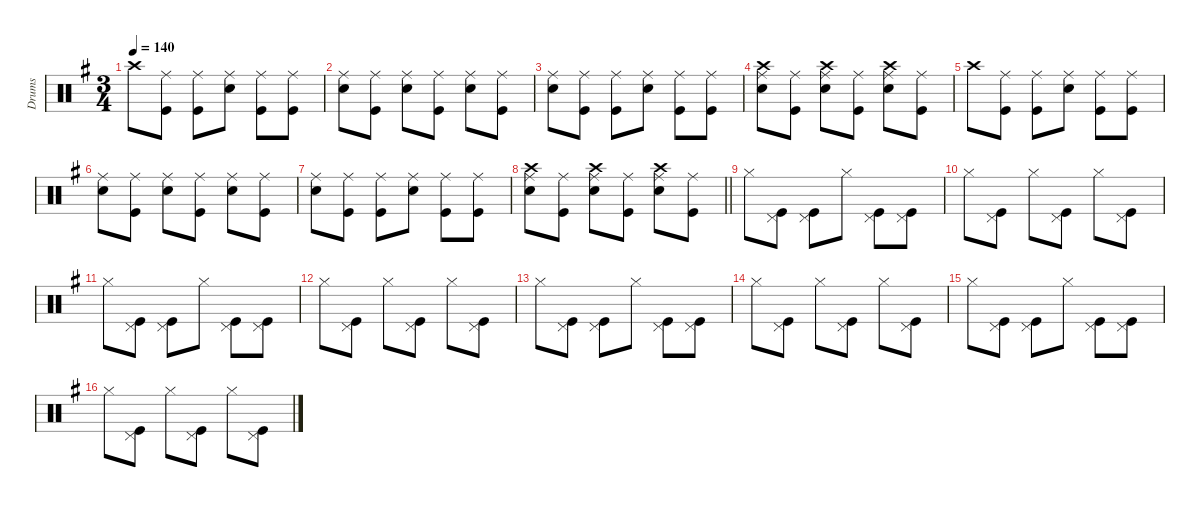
\defaultSystemsLayout 8
\hideDynamics
\bracketExtendMode groupsimilarinstruments
\firstSystemTrackNameMode fullname
\otherSystemsTrackNameOrientation horizontal
\track ("Drums" "drm.") {defaultSystemsLayout 4 instrument percussion}
\staff {score}
\articulation defaults
\ts (3 4)
\tempo 140
\clef neutral
\ks g "Crash high (hit)"{acc forcenatural}.8{dy fff beam Down}
("Ride (middle)"{acc forcenatural} "Kick (hit)"{acc forcenatural}).8{beam Down} ("Ride (middle)"{acc forcenatural} "Kick (hit)"{acc forcenatural}).8{beam Down} ("Ride (middle)"{acc forcenatural} "Snare (hit) 2"{acc forcenatural}).8{beam Down} ("Ride (middle)"{acc forcenatural} "Kick (hit)"{acc forcenatural}).8{beam Down} ("Ride (middle)"{acc forcenatural} "Kick (hit)"{acc forcenatural}).8{beam Down} |
("Ride (middle)"{acc forcenatural} "Snare (hit) 2"{acc forcenatural}).8{beam Down} ("Ride (middle)"{acc forcenatural} "Kick (hit)"{acc forcenatural}).8{beam Down} ("Ride (middle)"{acc forcenatural} "Snare (hit) 2"{acc forcenatural}).8{beam Down} ("Ride (middle)"{acc forcenatural} "Kick (hit)"{acc forcenatural}).8{beam Down} ("Ride (middle)"{acc forcenatural} "Snare (hit) 2"{acc forcenatural}).8{beam Down} ("Ride (middle)"{acc forcenatural} "Kick (hit)"{acc forcenatural}).8{beam Down} |
("Ride (middle)"{acc forcenatural} "Snare (hit) 2"{acc forcenatural}).8{beam Down} ("Ride (middle)"{acc forcenatural} "Kick (hit)"{acc forcenatural}).8{beam Down} ("Ride (middle)"{acc forcenatural} "Kick (hit)"{acc forcenatural}).8{beam Down} ("Ride (middle)"{acc forcenatural} "Snare (hit) 2"{acc forcenatural}).8{beam Down} ("Ride (middle)"{acc forcenatural} "Kick (hit)"{acc forcenatural}).8{beam Down} ("Ride (middle)"{acc forcenatural} "Kick (hit)"{acc forcenatural}).8{beam Down} |
("Crash high (hit)"{acc forcenatural} "Ride (middle)"{acc forcenatural} "Snare (hit) 2"{acc forcenatural}).8{beam Down} ("Ride (middle)"{acc forcenatural} "Kick (hit)"{acc forcenatural}).8{beam Down} ("Crash high (hit)"{acc forcenatural} "Ride (middle)"{acc forcenatural} "Snare (hit) 2"{acc forcenatural}).8{beam Down} ("Ride (middle)"{acc forcenatural} "Kick (hit)"{acc forcenatural}).8{beam Down} ("Crash high (hit)"{acc forcenatural} "Ride (middle)"{acc forcenatural} "Snare (hit) 2"{acc forcenatural}).8{beam Down} ("Ride (middle)"{acc forcenatural} "Kick (hit)"{acc forcenatural}).8{beam Down} |
"Crash high (hit)"{acc forcenatural}.8{beam Down} ("Ride (middle)"{acc forcenatural} "Kick (hit)"{acc forcenatural}).8{beam Down} ("Ride (middle)"{acc forcenatural} "Kick (hit)"{acc forcenatural}).8{beam Down} ("Ride (middle)"{acc forcenatural} "Snare (hit) 2"{acc forcenatural}).8{beam Down} ("Ride (middle)"{acc forcenatural} "Kick (hit)"{acc forcenatural}).8{beam Down} ("Ride (middle)"{acc forcenatural} "Kick (hit)"{acc forcenatural}).8{beam Down} |
("Ride (middle)"{acc forcenatural} "Snare (hit) 2"{acc forcenatural}).8{beam Down} ("Ride (middle)"{acc forcenatural} "Kick (hit)"{acc forcenatural}).8{beam Down} ("Ride (middle)"{acc forcenatural} "Snare (hit) 2"{acc forcenatural}).8{beam Down} ("Ride (middle)"{acc forcenatural} "Kick (hit)"{acc forcenatural}).8{beam Down} ("Ride (middle)"{acc forcenatural} "Snare (hit) 2"{acc forcenatural}).8{beam Down} ("Ride (middle)"{acc forcenatural} "Kick (hit)"{acc forcenatural}).8{beam Down} |
("Ride (middle)"{acc forcenatural} "Snare (hit) 2"{acc forcenatural}).8{beam Down} ("Ride (middle)"{acc forcenatural} "Kick (hit)"{acc forcenatural}).8{beam Down} ("Ride (middle)"{acc forcenatural} "Kick (hit)"{acc forcenatural}).8{beam Down} ("Ride (middle)"{acc forcenatural} "Snare (hit) 2"{acc forcenatural}).8{beam Down} ("Ride (middle)"{acc forcenatural} "Kick (hit)"{acc forcenatural}).8{beam Down} ("Ride (middle)"{acc forcenatural} "Kick (hit)"{acc forcenatural}).8{beam Down} |
\barLineRight lightlight
("Crash high (hit)"{acc forcenatural} "Ride (middle)"{acc forcenatural} "Snare (hit) 2"{acc forcenatural}).8{beam Down} ("Ride (middle)"{acc forcenatural} "Kick (hit)"{acc forcenatural}).8{beam Down} ("Crash high (hit)"{acc forcenatural} "Ride (middle)"{acc forcenatural} "Snare (hit) 2"{acc forcenatural}).8{beam Down} ("Ride (middle)"{acc forcenatural} "Kick (hit)"{acc forcenatural}).8{beam Down} ("Crash high (hit)"{acc forcenatural} "Ride (middle)"{acc forcenatural} "Snare (hit) 2"{acc forcenatural}).8{beam Down} ("Ride (middle)"{acc forcenatural} "Kick (hit)"{acc forcenatural}).8{beam Down} |
"Hi-Hat (closed)"{acc forcenatural}.8{dy f beam Down} ("Pedal Hi-Hat (hit)"{acc forcenatural} "Kick (hit)"{acc forcenatural}).8{beam Down} ("Pedal Hi-Hat (hit)"{acc forcenatural} "Kick (hit)"{acc forcenatural}).8{beam Down} "Hi-Hat (closed)"{acc forcenatural}.8{beam Down} ("Pedal Hi-Hat (hit)"{acc forcenatural} "Kick (hit)"{acc forcenatural}).8{beam Down} ("Pedal Hi-Hat (hit)"{acc forcenatural} "Kick (hit)"{acc forcenatural}).8{beam Down} |
"Hi-Hat (closed)"{acc forcenatural}.8{beam Down} ("Pedal Hi-Hat (hit)"{acc forcenatural} "Kick (hit)"{acc forcenatural}).8{beam Down} "Hi-Hat (closed)"{acc forcenatural}.8{beam Down} ("Pedal Hi-Hat (hit)"{acc forcenatural} "Kick (hit)"{acc forcenatural}).8{beam Down} "Hi-Hat (closed)"{acc forcenatural}.8{beam Down} ("Pedal Hi-Hat (hit)"{acc forcenatural} "Kick (hit)"{acc forcenatural}).8{beam Down} |
"Hi-Hat (closed)"{acc forcenatural}.8{beam Down} ("Pedal Hi-Hat (hit)"{acc forcenatural} "Kick (hit)"{acc forcenatural}).8{beam Down} ("Pedal Hi-Hat (hit)"{acc forcenatural} "Kick (hit)"{acc forcenatural}).8{beam Down} "Hi-Hat (closed)"{acc forcenatural}.8{beam Down} ("Pedal Hi-Hat (hit)"{acc forcenatural} "Kick (hit)"{acc forcenatural}).8{beam Down} ("Pedal Hi-Hat (hit)"{acc forcenatural} "Kick (hit)"{acc forcenatural}).8{beam Down} |
"Hi-Hat (closed)"{acc forcenatural}.8{beam Down} ("Pedal Hi-Hat (hit)"{acc forcenatural} "Kick (hit)"{acc forcenatural}).8{beam Down} "Hi-Hat (closed)"{acc forcenatural}.8{beam Down} ("Pedal Hi-Hat (hit)"{acc forcenatural} "Kick (hit)"{acc forcenatural}).8{beam Down} "Hi-Hat (closed)"{acc forcenatural}.8{beam Down} ("Pedal Hi-Hat (hit)"{acc forcenatural} "Kick (hit)"{acc forcenatural}).8{beam Down} |
"Hi-Hat (closed)"{acc forcenatural}.8{beam Down} ("Pedal Hi-Hat (hit)"{acc forcenatural} "Kick (hit)"{acc forcenatural}).8{beam Down} ("Pedal Hi-Hat (hit)"{acc forcenatural} "Kick (hit)"{acc forcenatural}).8{beam Down} "Hi-Hat (closed)"{acc forcenatural}.8{beam Down} ("Pedal Hi-Hat (hit)"{acc forcenatural} "Kick (hit)"{acc forcenatural}).8{beam Down} ("Pedal Hi-Hat (hit)"{acc forcenatural} "Kick (hit)"{acc forcenatural}).8{beam Down} |
"Hi-Hat (closed)"{acc forcenatural}.8{beam Down} ("Pedal Hi-Hat (hit)"{acc forcenatural} "Kick (hit)"{acc forcenatural}).8{beam Down} "Hi-Hat (closed)"{acc forcenatural}.8{beam Down} ("Pedal Hi-Hat (hit)"{acc forcenatural} "Kick (hit)"{acc forcenatural}).8{beam Down} "Hi-Hat (closed)"{acc forcenatural}.8{beam Down} ("Pedal Hi-Hat (hit)"{acc forcenatural} "Kick (hit)"{acc forcenatural}).8{beam Down} |
"Hi-Hat (closed)"{acc forcenatural}.8{beam Down} ("Pedal Hi-Hat (hit)"{acc forcenatural} "Kick (hit)"{acc forcenatural}).8{beam Down} ("Pedal Hi-Hat (hit)"{acc forcenatural} "Kick (hit)"{acc forcenatural}).8{beam Down} "Hi-Hat (closed)"{acc forcenatural}.8{beam Down} ("Pedal Hi-Hat (hit)"{acc forcenatural} "Kick (hit)"{acc forcenatural}).8{beam Down} ("Pedal Hi-Hat (hit)"{acc forcenatural} "Kick (hit)"{acc forcenatural}).8{beam Down} |
"Hi-Hat (closed)"{acc forcenatural}.8{beam Down} ("Pedal Hi-Hat (hit)"{acc forcenatural} "Kick (hit)"{acc forcenatural}).8{beam Down} "Hi-Hat (closed)"{acc forcenatural}.8{beam Down} ("Pedal Hi-Hat (hit)"{acc forcenatural} "Kick (hit)"{acc forcenatural}).8{beam Down} "Hi-Hat (closed)"{acc forcenatural}.8{beam Down} ("Pedal Hi-Hat (hit)"{acc forcenatural} "Kick (hit)"{acc forcenatural}).8{beam Down}
